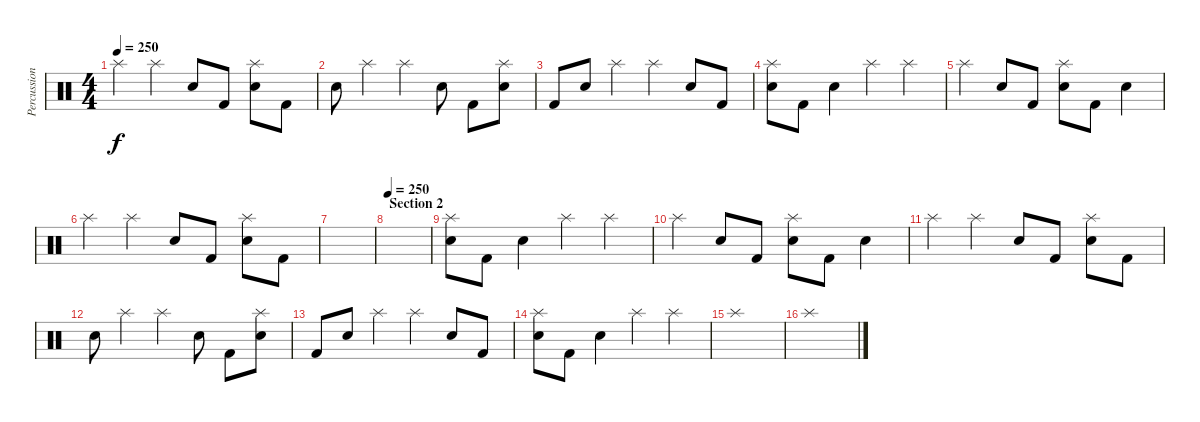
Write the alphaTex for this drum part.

\track ("Percussions2" "Percussion") {instrument percussion}
\staff {score}
\articulation defaults
\ts (4 4)
\tempo 250
\clef neutral
\ks c "Splash (hit)".4{dy f} "Splash (hit)".4 "Snare (hit) 2".8 "Kick (hit) 2".8
("Snare (hit) 2" "Splash (hit)").8 "Kick (hit) 2".8 |
"Snare (hit) 2".8 "Splash (hit)".4 "Splash (hit)".4 "Snare (hit) 2".8 "Kick (hit) 2".8 ("Snare (hit) 2" "Splash (hit)").8 |
"Kick (hit) 2".8 "Snare (hit) 2".8 "Splash (hit)".4 "Splash (hit)".4 "Snare (hit) 2".8 "Kick (hit) 2".8 |
("Snare (hit) 2" "Splash (hit)").8 "Kick (hit) 2".8 "Snare (hit) 2".4 "Splash (hit)".4 "Splash (hit)".4 |
"Splash (hit)".4 "Snare (hit) 2".8 "Kick (hit) 2".8 ("Snare (hit) 2" "Splash (hit)").8 "Kick (hit) 2".8 "Snare (hit) 2".4 |
"Splash (hit)".4 "Splash (hit)".4 "Snare (hit) 2".8 "Kick (hit) 2".8 ("Snare (hit) 2" "Splash (hit)").8 "Kick (hit) 2".8 |
|
\section ("" "Section 2")
\tempo 250
|
("Snare (hit) 2" "Splash (hit)").8 "Kick (hit) 2".8 "Snare (hit) 2".4 "Splash (hit)".4 "Splash (hit)".4 |
"Splash (hit)".4 "Snare (hit) 2".8 "Kick (hit) 2".8 ("Snare (hit) 2" "Splash (hit)").8 "Kick (hit) 2".8 "Snare (hit) 2".4 |
"Splash (hit)".4 "Splash (hit)".4 "Snare (hit) 2".8 "Kick (hit) 2".8 ("Snare (hit) 2" "Splash (hit)").8 "Kick (hit) 2".8 |
"Snare (hit) 2".8 "Splash (hit)".4 "Splash (hit)".4 "Snare (hit) 2".8 "Kick (hit) 2".8 ("Snare (hit) 2" "Splash (hit)").8 |
"Kick (hit) 2".8 "Snare (hit) 2".8 "Splash (hit)".4 "Splash (hit)".4 "Snare (hit) 2".8 "Kick (hit) 2".8 |
("Snare (hit) 2" "Splash (hit)").8 "Kick (hit) 2".8 "Snare (hit) 2".4 "Splash (hit)".4 "Splash (hit)".4 |
"Splash (hit)".1 |
"Splash (hit)".1
